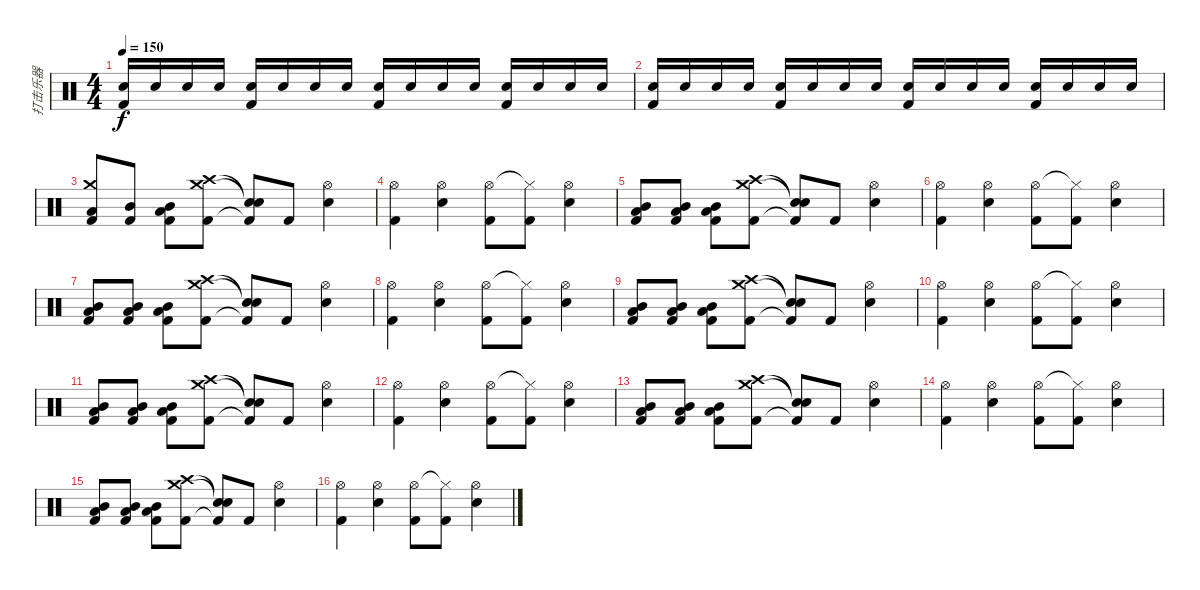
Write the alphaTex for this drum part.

\track ("打击乐器" "打击乐器") {instrument percussion}
\staff {score}
\articulation defaults
\ts (4 4)
\tempo 150
\clef neutral
\ks c
("Snare (hit) 2" "Kick (hit) 2").16{dy f} "Snare (hit) 2".16 "Snare (hit) 2".16 "Snare (hit) 2".16 ("Snare (hit) 2" "Kick (hit) 2").16 "Snare (hit) 2".16 "Snare (hit) 2".16 "Snare (hit) 2".16 ("Snare (hit) 2" "Kick (hit) 2").16 "Snare (hit) 2".16 "Snare (hit) 2".16 "Snare (hit) 2".16 ("Snare (hit) 2" "Kick (hit) 2").16 "Snare (hit) 2".16 "Snare (hit) 2".16 "Snare (hit) 2".16 |
("Snare (hit) 2" "Kick (hit) 2").16 "Snare (hit) 2".16 "Snare (hit) 2".16 "Snare (hit) 2".16 ("Snare (hit) 2" "Kick (hit) 2").16 "Snare (hit) 2".16 "Snare (hit) 2".16 "Snare (hit) 2".16 ("Snare (hit) 2" "Kick (hit) 2").16 "Snare (hit) 2".16 "Snare (hit) 2".16 "Snare (hit) 2".16 ("Snare (hit) 2" "Kick (hit) 2").16 "Snare (hit) 2".16 "Snare (hit) 2".16 "Snare (hit) 2".16 |
("Crash medium (hit)" "Low Tom (hit)" "Kick (hit) 2").8 ("Mid Tom (hit)" "Kick (hit) 2").8 ("Mid Tom (hit)" "Low Tom (hit)" "Kick (hit) 2").8 ("Crash high (hit)" "Crash medium (hit)" "Kick (hit) 2").8 ("Snare (hit)"{t} "Snare (hit)"{t} "Kick (hit) 2"{t}).8 "Kick (hit) 2".8 ("Hi-Hat (open)" "Snare (hit) 2").4 |
("Hi-Hat (open)" "Kick (hit) 2").4 ("Hi-Hat (open)" "Snare (hit) 2").4 ("Hi-Hat (open)" "Kick (hit) 2").8 ("Hi-Hat (closed)"{t} "Kick (hit) 2").8 ("Hi-Hat (open)" "Snare (hit) 2").4 |
("Mid Tom (hit)" "Low Tom (hit)" "Kick (hit) 2").8 ("Mid Tom (hit)" "Low Tom (hit)" "Kick (hit) 2").8 ("Mid Tom (hit)" "Low Tom (hit)" "Kick (hit) 2").8 ("Crash high (hit)" "Crash medium (hit)" "Kick (hit) 2").8 ("Snare (hit)"{t} "Snare (hit)"{t} "Kick (hit) 2"{t}).8 "Kick (hit) 2".8 ("Hi-Hat (open)" "Snare (hit) 2").4 |
("Hi-Hat (open)" "Kick (hit) 2").4 ("Hi-Hat (open)" "Snare (hit) 2").4 ("Hi-Hat (open)" "Kick (hit) 2").8 ("Hi-Hat (closed)"{t} "Kick (hit) 2").8 ("Hi-Hat (open)" "Snare (hit) 2").4 |
("Mid Tom (hit)" "Low Tom (hit)" "Kick (hit) 2").8 ("Mid Tom (hit)" "Low Tom (hit)" "Kick (hit) 2").8 ("Mid Tom (hit)" "Low Tom (hit)" "Kick (hit) 2").8 ("Crash high (hit)" "Crash medium (hit)" "Kick (hit) 2").8 ("Snare (hit)"{t} "Snare (hit)"{t} "Kick (hit) 2"{t}).8 "Kick (hit) 2".8 ("Hi-Hat (open)" "Snare (hit) 2").4 |
("Hi-Hat (open)" "Kick (hit) 2").4 ("Hi-Hat (open)" "Snare (hit) 2").4 ("Hi-Hat (open)" "Kick (hit) 2").8 ("Hi-Hat (closed)"{t} "Kick (hit) 2").8 ("Hi-Hat (open)" "Snare (hit) 2").4 |
("Mid Tom (hit)" "Low Tom (hit)" "Kick (hit) 2").8 ("Mid Tom (hit)" "Low Tom (hit)" "Kick (hit) 2").8 ("Mid Tom (hit)" "Low Tom (hit)" "Kick (hit) 2").8 ("Crash high (hit)" "Crash medium (hit)" "Kick (hit) 2").8 ("Snare (hit)"{t} "Snare (hit)"{t} "Kick (hit) 2"{t}).8 "Kick (hit) 2".8 ("Hi-Hat (open)" "Snare (hit) 2").4 |
("Hi-Hat (open)" "Kick (hit) 2").4 ("Hi-Hat (open)" "Snare (hit) 2").4 ("Hi-Hat (open)" "Kick (hit) 2").8 ("Hi-Hat (closed)"{t} "Kick (hit) 2").8 ("Hi-Hat (open)" "Snare (hit) 2").4 |
("Mid Tom (hit)" "Low Tom (hit)" "Kick (hit) 2").8 ("Mid Tom (hit)" "Low Tom (hit)" "Kick (hit) 2").8 ("Mid Tom (hit)" "Low Tom (hit)" "Kick (hit) 2").8 ("Crash high (hit)" "Crash medium (hit)" "Kick (hit) 2").8 ("Snare (hit)"{t} "Snare (hit)"{t} "Kick (hit) 2"{t}).8 "Kick (hit) 2".8 ("Hi-Hat (open)" "Snare (hit) 2").4 |
("Hi-Hat (open)" "Kick (hit) 2").4 ("Hi-Hat (open)" "Snare (hit) 2").4 ("Hi-Hat (open)" "Kick (hit) 2").8 ("Hi-Hat (closed)"{t} "Kick (hit) 2").8 ("Hi-Hat (open)" "Snare (hit) 2").4 |
("Mid Tom (hit)" "Low Tom (hit)" "Kick (hit) 2").8 ("Mid Tom (hit)" "Low Tom (hit)" "Kick (hit) 2").8 ("Mid Tom (hit)" "Low Tom (hit)" "Kick (hit) 2").8 ("Crash high (hit)" "Crash medium (hit)" "Kick (hit) 2").8 ("Snare (hit)"{t} "Snare (hit)"{t} "Kick (hit) 2"{t}).8 "Kick (hit) 2".8 ("Hi-Hat (open)" "Snare (hit) 2").4 |
("Hi-Hat (open)" "Kick (hit) 2").4 ("Hi-Hat (open)" "Snare (hit) 2").4 ("Hi-Hat (open)" "Kick (hit) 2").8 ("Hi-Hat (closed)"{t} "Kick (hit) 2").8 ("Hi-Hat (open)" "Snare (hit) 2").4 |
("Mid Tom (hit)" "Low Tom (hit)" "Kick (hit) 2").8 ("Mid Tom (hit)" "Low Tom (hit)" "Kick (hit) 2").8 ("Mid Tom (hit)" "Low Tom (hit)" "Kick (hit) 2").8 ("Crash high (hit)" "Crash medium (hit)" "Kick (hit) 2").8 ("Snare (hit)"{t} "Snare (hit)"{t} "Kick (hit) 2"{t}).8 "Kick (hit) 2".8 ("Hi-Hat (open)" "Snare (hit) 2").4 |
("Hi-Hat (open)" "Kick (hit) 2").4 ("Hi-Hat (open)" "Snare (hit) 2").4 ("Hi-Hat (open)" "Kick (hit) 2").8 ("Hi-Hat (closed)"{t} "Kick (hit) 2").8 ("Hi-Hat (open)" "Snare (hit) 2").4
